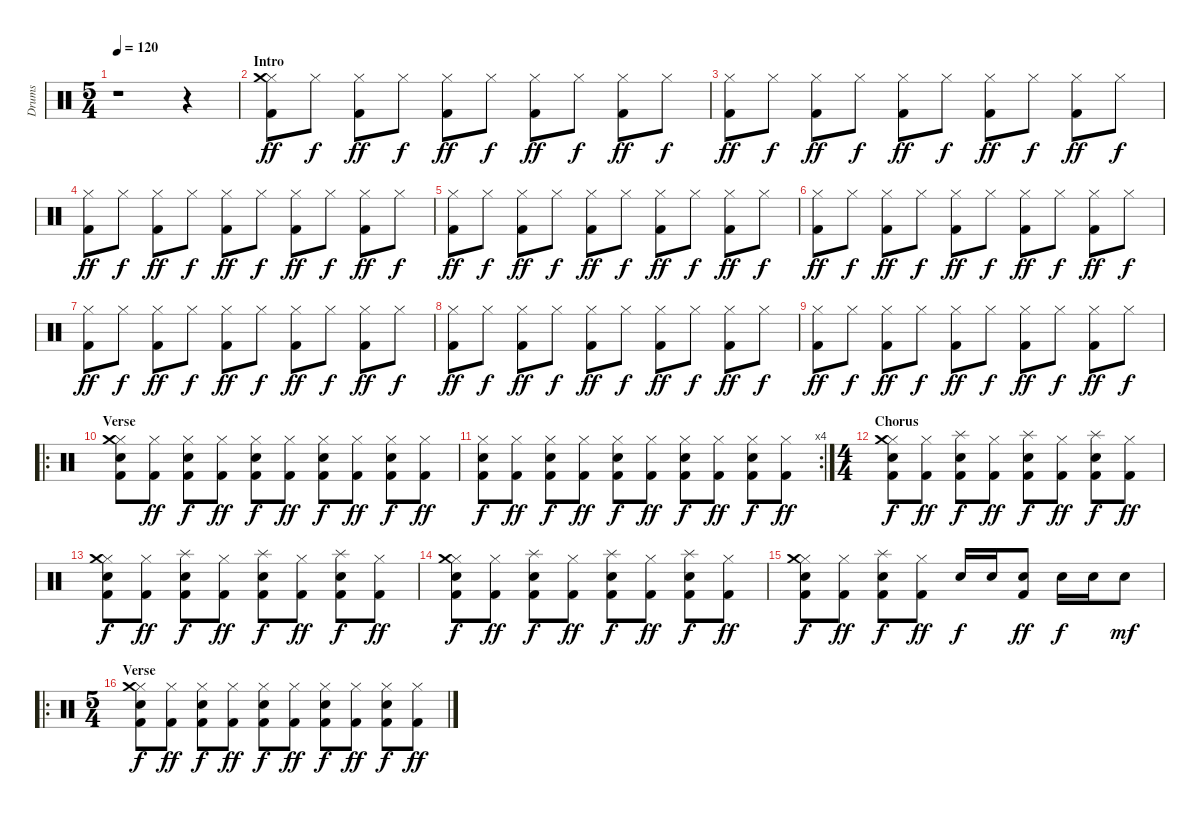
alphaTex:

\track ("Drums" "Drums") {instrument percussion}
\staff {score}
\articulation defaults
\ts (5 4)
\tempo 120
\clef neutral
\ks c
r.1{dy ff} r.4 |
\section ("" "Intro")
("Hi-Hat (closed)" "Crash medium (hit)" "Kick (hit) 2").8 "Hi-Hat (closed)".8{dy f} ("Hi-Hat (closed)" "Kick (hit) 2").8{dy ff} "Hi-Hat (closed)".8{dy f} ("Hi-Hat (closed)" "Kick (hit) 2").8{dy ff} "Hi-Hat (closed)".8{dy f} ("Hi-Hat (closed)" "Kick (hit) 2").8{dy ff} "Hi-Hat (closed)".8{dy f} ("Hi-Hat (closed)" "Kick (hit) 2").8{dy ff} "Hi-Hat (closed)".8{dy f} |
("Hi-Hat (closed)" "Kick (hit) 2").8{dy ff} "Hi-Hat (closed)".8{dy f} ("Hi-Hat (closed)" "Kick (hit) 2").8{dy ff} "Hi-Hat (closed)".8{dy f} ("Hi-Hat (closed)" "Kick (hit) 2").8{dy ff} "Hi-Hat (closed)".8{dy f} ("Hi-Hat (closed)" "Kick (hit) 2").8{dy ff} "Hi-Hat (closed)".8{dy f} ("Hi-Hat (closed)" "Kick (hit) 2").8{dy ff} "Hi-Hat (closed)".8{dy f} |
("Hi-Hat (closed)" "Kick (hit) 2").8{dy ff} "Hi-Hat (closed)".8{dy f} ("Hi-Hat (closed)" "Kick (hit) 2").8{dy ff} "Hi-Hat (closed)".8{dy f} ("Hi-Hat (closed)" "Kick (hit) 2").8{dy ff} "Hi-Hat (closed)".8{dy f} ("Hi-Hat (closed)" "Kick (hit) 2").8{dy ff} "Hi-Hat (closed)".8{dy f} ("Hi-Hat (closed)" "Kick (hit) 2").8{dy ff} "Hi-Hat (closed)".8{dy f} |
("Hi-Hat (closed)" "Kick (hit) 2").8{dy ff} "Hi-Hat (closed)".8{dy f} ("Hi-Hat (closed)" "Kick (hit) 2").8{dy ff} "Hi-Hat (closed)".8{dy f} ("Hi-Hat (closed)" "Kick (hit) 2").8{dy ff} "Hi-Hat (closed)".8{dy f} ("Hi-Hat (closed)" "Kick (hit) 2").8{dy ff} "Hi-Hat (closed)".8{dy f} ("Hi-Hat (closed)" "Kick (hit) 2").8{dy ff} "Hi-Hat (closed)".8{dy f} |
("Hi-Hat (closed)" "Kick (hit) 2").8{dy ff} "Hi-Hat (closed)".8{dy f} ("Hi-Hat (closed)" "Kick (hit) 2").8{dy ff} "Hi-Hat (closed)".8{dy f} ("Hi-Hat (closed)" "Kick (hit) 2").8{dy ff} "Hi-Hat (closed)".8{dy f} ("Hi-Hat (closed)" "Kick (hit) 2").8{dy ff} "Hi-Hat (closed)".8{dy f} ("Hi-Hat (closed)" "Kick (hit) 2").8{dy ff} "Hi-Hat (closed)".8{dy f} |
("Hi-Hat (closed)" "Kick (hit) 2").8{dy ff} "Hi-Hat (closed)".8{dy f} ("Hi-Hat (closed)" "Kick (hit) 2").8{dy ff} "Hi-Hat (closed)".8{dy f} ("Hi-Hat (closed)" "Kick (hit) 2").8{dy ff} "Hi-Hat (closed)".8{dy f} ("Hi-Hat (closed)" "Kick (hit) 2").8{dy ff} "Hi-Hat (closed)".8{dy f} ("Hi-Hat (closed)" "Kick (hit) 2").8{dy ff} "Hi-Hat (closed)".8{dy f} |
("Hi-Hat (closed)" "Kick (hit) 2").8{dy ff} "Hi-Hat (closed)".8{dy f} ("Hi-Hat (closed)" "Kick (hit) 2").8{dy ff} "Hi-Hat (closed)".8{dy f} ("Hi-Hat (closed)" "Kick (hit) 2").8{dy ff} "Hi-Hat (closed)".8{dy f} ("Hi-Hat (closed)" "Kick (hit) 2").8{dy ff} "Hi-Hat (closed)".8{dy f} ("Hi-Hat (closed)" "Kick (hit) 2").8{dy ff} "Hi-Hat (closed)".8{dy f} |
("Hi-Hat (closed)" "Kick (hit) 2").8{dy ff} "Hi-Hat (closed)".8{dy f} ("Hi-Hat (closed)" "Kick (hit) 2").8{dy ff} "Hi-Hat (closed)".8{dy f} ("Hi-Hat (closed)" "Kick (hit) 2").8{dy ff} "Hi-Hat (closed)".8{dy f} ("Hi-Hat (closed)" "Kick (hit) 2").8{dy ff} "Hi-Hat (closed)".8{dy f} ("Hi-Hat (closed)" "Kick (hit) 2").8{dy ff} "Hi-Hat (closed)".8{dy f} |
\ro
\section ("" "Verse")
("Hi-Hat (closed)" "Crash medium (hit)" "Snare (hit) 2" "Kick (hit) 2").8 ("Hi-Hat (closed)" "Kick (hit) 2").8{dy ff} ("Hi-Hat (closed)" "Snare (hit) 2" "Kick (hit) 2").8{dy f} ("Hi-Hat (closed)" "Kick (hit) 2").8{dy ff} ("Hi-Hat (closed)" "Snare (hit) 2" "Kick (hit) 2").8{dy f} ("Hi-Hat (closed)" "Kick (hit) 2").8{dy ff} ("Hi-Hat (closed)" "Snare (hit) 2" "Kick (hit) 2").8{dy f} ("Hi-Hat (closed)" "Kick (hit) 2").8{dy ff} ("Hi-Hat (closed)" "Snare (hit) 2" "Kick (hit) 2").8{dy f} ("Hi-Hat (closed)" "Kick (hit) 2").8{dy ff} |
\rc 4
("Hi-Hat (closed)" "Snare (hit) 2" "Kick (hit) 2").8{dy f} ("Hi-Hat (closed)" "Kick (hit) 2").8{dy ff} ("Hi-Hat (closed)" "Snare (hit) 2" "Kick (hit) 2").8{dy f} ("Hi-Hat (closed)" "Kick (hit) 2").8{dy ff} ("Hi-Hat (closed)" "Snare (hit) 2" "Kick (hit) 2").8{dy f} ("Hi-Hat (closed)" "Kick (hit) 2").8{dy ff} ("Hi-Hat (closed)" "Snare (hit) 2" "Kick (hit) 2").8{dy f} ("Hi-Hat (closed)" "Kick (hit) 2").8{dy ff} ("Hi-Hat (closed)" "Snare (hit) 2" "Kick (hit) 2").8{dy f} ("Hi-Hat (closed)" "Kick (hit) 2").8{dy ff} |
\ts (4 4)
\section ("" "Chorus")
("Hi-Hat (closed)" "Crash medium (hit)" "Snare (hit) 2" "Kick (hit) 2").8{dy f} ("Hi-Hat (closed)" "Kick (hit) 2").8{dy ff} ("Splash (hit)" "Snare (hit) 2" "Kick (hit) 2").8{dy f} ("Hi-Hat (closed)" "Kick (hit) 2").8{dy ff} ("Splash (hit)" "Snare (hit) 2" "Kick (hit) 2").8{dy f} ("Hi-Hat (closed)" "Kick (hit) 2").8{dy ff} ("Splash (hit)" "Snare (hit) 2" "Kick (hit) 2").8{dy f} ("Hi-Hat (closed)" "Kick (hit) 2").8{dy ff} |
("Hi-Hat (closed)" "Crash medium (hit)" "Snare (hit) 2" "Kick (hit) 2").8{dy f} ("Hi-Hat (closed)" "Kick (hit) 2").8{dy ff} ("Splash (hit)" "Snare (hit) 2" "Kick (hit) 2").8{dy f} ("Hi-Hat (closed)" "Kick (hit) 2").8{dy ff} ("Splash (hit)" "Snare (hit) 2" "Kick (hit) 2").8{dy f} ("Hi-Hat (closed)" "Kick (hit) 2").8{dy ff} ("Splash (hit)" "Snare (hit) 2" "Kick (hit) 2").8{dy f} ("Hi-Hat (closed)" "Kick (hit) 2").8{dy ff} |
("Hi-Hat (closed)" "Crash medium (hit)" "Snare (hit) 2" "Kick (hit) 2").8{dy f} ("Hi-Hat (closed)" "Kick (hit) 2").8{dy ff} ("Splash (hit)" "Snare (hit) 2" "Kick (hit) 2").8{dy f} ("Hi-Hat (closed)" "Kick (hit) 2").8{dy ff} ("Splash (hit)" "Snare (hit) 2" "Kick (hit) 2").8{dy f} ("Hi-Hat (closed)" "Kick (hit) 2").8{dy ff} ("Splash (hit)" "Snare (hit) 2" "Kick (hit) 2").8{dy f} ("Hi-Hat (closed)" "Kick (hit) 2").8{dy ff} |
("Hi-Hat (closed)" "Crash medium (hit)" "Snare (hit) 2" "Kick (hit) 2").8{dy f} ("Hi-Hat (closed)" "Kick (hit) 2").8{dy ff} ("Splash (hit)" "Snare (hit) 2" "Kick (hit) 2").8{dy f} ("Hi-Hat (closed)" "Kick (hit) 2").8{dy ff} "Snare (hit) 2".16{dy f} "Snare (hit) 2".16 ("Snare (hit) 2" "Kick (hit) 2").8{dy ff} "Snare (hit) 2".16{dy f} "Snare (hit) 2".16 "Snare (hit) 2".8{dy mf} |
\ro
\ts (5 4)
\section ("" "Verse")
("Hi-Hat (closed)" "Crash medium (hit)" "Snare (hit) 2" "Kick (hit) 2").8{dy f} ("Hi-Hat (closed)" "Kick (hit) 2").8{dy ff} ("Hi-Hat (closed)" "Snare (hit) 2" "Kick (hit) 2").8{dy f} ("Hi-Hat (closed)" "Kick (hit) 2").8{dy ff} ("Hi-Hat (closed)" "Snare (hit) 2" "Kick (hit) 2").8{dy f} ("Hi-Hat (closed)" "Kick (hit) 2").8{dy ff} ("Hi-Hat (closed)" "Snare (hit) 2" "Kick (hit) 2").8{dy f} ("Hi-Hat (closed)" "Kick (hit) 2").8{dy ff} ("Hi-Hat (closed)" "Snare (hit) 2" "Kick (hit) 2").8{dy f} ("Hi-Hat (closed)" "Kick (hit) 2").8{dy ff}
